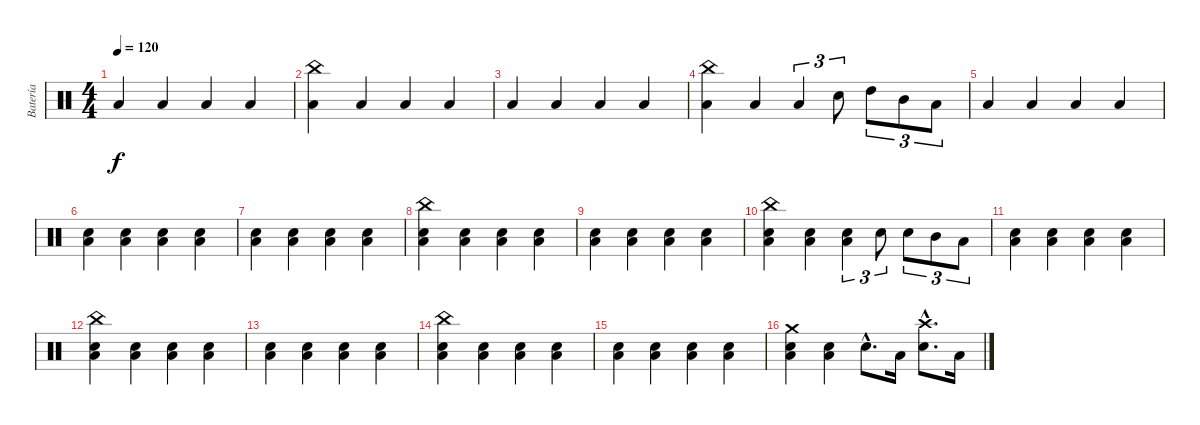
\track ("Batería" "Batería") {instrument percussion}
\staff {score}
\articulation defaults
\ts (4 4)
\tempo 120
\clef neutral
\ks c "Low Tom (hit)".4{dy f} "Low Tom (hit)".4 "Low Tom (hit)".4 "Low Tom (hit)".4
|
("China (hit)" "Low Tom (hit)").4 "Low Tom (hit)".4 "Low Tom (hit)".4 "Low Tom (hit)".4 |
"Low Tom (hit)".4 "Low Tom (hit)".4 "Low Tom (hit)".4 "Low Tom (hit)".4 |
("China (hit)" "Low Tom (hit)").4 "Low Tom (hit)".4 "Low Tom (hit)".4{tu (3 2)} "Electric Snare (hit)".8{tu (3 2)} "High Tom (hit)".8{tu (3 2)} "Mid Tom (hit)".8{tu (3 2)} "Low Tom (hit)".8{tu (3 2)} |
"Low Tom (hit)".4 "Low Tom (hit)".4 "Low Tom (hit)".4 "Low Tom (hit)".4 |
("Low Tom (hit)" "Electric Snare (hit)").4 ("Low Tom (hit)" "Electric Snare (hit)").4 ("Low Tom (hit)" "Electric Snare (hit)").4 ("Low Tom (hit)" "Electric Snare (hit)").4 |
("Low Tom (hit)" "Electric Snare (hit)").4 ("Low Tom (hit)" "Electric Snare (hit)").4 ("Low Tom (hit)" "Electric Snare (hit)").4 ("Low Tom (hit)" "Electric Snare (hit)").4 |
("China (hit)" "Low Tom (hit)" "Electric Snare (hit)").4 ("Low Tom (hit)" "Electric Snare (hit)").4 ("Low Tom (hit)" "Electric Snare (hit)").4 ("Low Tom (hit)" "Electric Snare (hit)").4 |
("Low Tom (hit)" "Electric Snare (hit)").4 ("Low Tom (hit)" "Electric Snare (hit)").4 ("Low Tom (hit)" "Electric Snare (hit)").4 ("Low Tom (hit)" "Electric Snare (hit)").4 |
("China (hit)" "Low Tom (hit)" "Electric Snare (hit)").4 ("Low Tom (hit)" "Electric Snare (hit)").4 ("Low Tom (hit)" "Electric Snare (hit)").4{tu (3 2)} "Electric Snare (hit)".8{tu (3 2)} "Electric Snare (hit)".8{tu (3 2)} "Mid Tom (hit)".8{tu (3 2)} "Low Tom (hit)".8{tu (3 2)} |
("Low Tom (hit)" "Electric Snare (hit)").4 ("Low Tom (hit)" "Electric Snare (hit)").4 ("Low Tom (hit)" "Electric Snare (hit)").4 ("Low Tom (hit)" "Electric Snare (hit)").4 |
("China (hit)" "Low Tom (hit)" "Electric Snare (hit)").4 ("Low Tom (hit)" "Electric Snare (hit)").4 ("Low Tom (hit)" "Electric Snare (hit)").4 ("Low Tom (hit)" "Electric Snare (hit)").4 |
("Low Tom (hit)" "Electric Snare (hit)").4 ("Low Tom (hit)" "Electric Snare (hit)").4 ("Low Tom (hit)" "Electric Snare (hit)").4 ("Low Tom (hit)" "Electric Snare (hit)").4 |
("China (hit)" "Low Tom (hit)" "Electric Snare (hit)").4 ("Low Tom (hit)" "Electric Snare (hit)").4 ("Low Tom (hit)" "Electric Snare (hit)").4 ("Low Tom (hit)" "Electric Snare (hit)").4 |
("Low Tom (hit)" "Electric Snare (hit)").4 ("Low Tom (hit)" "Electric Snare (hit)").4 ("Low Tom (hit)" "Electric Snare (hit)").4 ("Low Tom (hit)" "Electric Snare (hit)").4 |
("Crash medium (hit)" "Low Tom (hit)" "Electric Snare (hit)").4 ("Low Tom (hit)" "Electric Snare (hit)").4 "Electric Snare (hit)"{hac}.8{d} "Low Tom (hit)".16 ("Crash high (hit)"{hac} "Electric Snare (hit)"{hac}).8{d} "Low Tom (hit)".16
